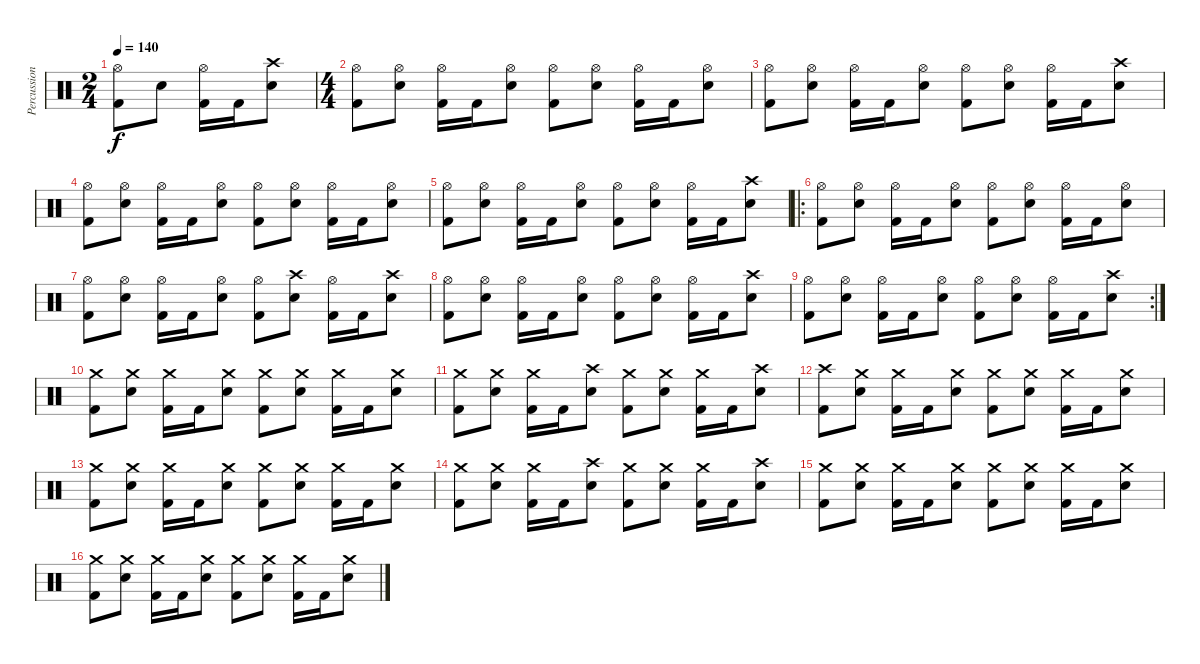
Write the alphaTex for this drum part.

\track ("Percussions" "Percussion") {instrument percussion}
\staff {score}
\articulation defaults
\ts (2 4)
\tempo 140
\clef neutral
\ks c
("Hi-Hat (open)" "Kick (hit) 2").8{dy f} "Snare (hit) 2".8 ("Hi-Hat (open)" "Kick (hit) 2").16 "Kick (hit) 2".16 ("Crash high (hit)" "Snare (hit) 2").8 |
\ts (4 4)
("Hi-Hat (open)" "Kick (hit) 2").8 ("Hi-Hat (open)" "Snare (hit) 2").8 ("Hi-Hat (open)" "Kick (hit) 2").16 "Kick (hit) 2".16 ("Hi-Hat (open)" "Snare (hit) 2").8 ("Hi-Hat (open)" "Kick (hit) 2").8 ("Hi-Hat (open)" "Snare (hit) 2").8 ("Hi-Hat (open)" "Kick (hit) 2").16 "Kick (hit) 2".16 ("Hi-Hat (open)" "Snare (hit) 2").8 |
("Hi-Hat (open)" "Kick (hit) 2").8 ("Hi-Hat (open)" "Snare (hit) 2").8 ("Hi-Hat (open)" "Kick (hit) 2").16 "Kick (hit) 2".16 ("Hi-Hat (open)" "Snare (hit) 2").8 ("Hi-Hat (open)" "Kick (hit) 2").8 ("Hi-Hat (open)" "Snare (hit) 2").8 ("Hi-Hat (open)" "Kick (hit) 2").16 "Kick (hit) 2".16 ("Crash high (hit)" "Snare (hit) 2").8 |
("Hi-Hat (open)" "Kick (hit) 2").8 ("Hi-Hat (open)" "Snare (hit) 2").8 ("Hi-Hat (open)" "Kick (hit) 2").16 "Kick (hit) 2".16 ("Hi-Hat (open)" "Snare (hit) 2").8 ("Hi-Hat (open)" "Kick (hit) 2").8 ("Hi-Hat (open)" "Snare (hit) 2").8 ("Hi-Hat (open)" "Kick (hit) 2").16 "Kick (hit) 2".16 ("Hi-Hat (open)" "Snare (hit) 2").8 |
("Hi-Hat (open)" "Kick (hit) 2").8 ("Hi-Hat (open)" "Snare (hit) 2").8 ("Hi-Hat (open)" "Kick (hit) 2").16 "Kick (hit) 2".16 ("Hi-Hat (open)" "Snare (hit) 2").8 ("Hi-Hat (open)" "Kick (hit) 2").8 ("Hi-Hat (open)" "Snare (hit) 2").8 ("Hi-Hat (open)" "Kick (hit) 2").16 "Kick (hit) 2".16 ("Crash high (hit)" "Snare (hit) 2").8 |
\ro
("Hi-Hat (open)" "Kick (hit) 2").8 ("Hi-Hat (open)" "Snare (hit) 2").8 ("Hi-Hat (open)" "Kick (hit) 2").16 "Kick (hit) 2".16 ("Hi-Hat (open)" "Snare (hit) 2").8 ("Hi-Hat (open)" "Kick (hit) 2").8 ("Hi-Hat (open)" "Snare (hit) 2").8 ("Hi-Hat (open)" "Kick (hit) 2").16 "Kick (hit) 2".16 ("Hi-Hat (open)" "Snare (hit) 2").8 |
("Hi-Hat (open)" "Kick (hit) 2").8 ("Hi-Hat (open)" "Snare (hit) 2").8 ("Hi-Hat (open)" "Kick (hit) 2").16 "Kick (hit) 2".16 ("Hi-Hat (open)" "Snare (hit) 2").8 ("Hi-Hat (open)" "Kick (hit) 2").8 ("Crash high (hit)" "Snare (hit) 2").8 ("Hi-Hat (open)" "Kick (hit) 2").16 "Kick (hit) 2".16 ("Crash high (hit)" "Snare (hit) 2").8 |
("Hi-Hat (open)" "Kick (hit) 2").8 ("Hi-Hat (open)" "Snare (hit) 2").8 ("Hi-Hat (open)" "Kick (hit) 2").16 "Kick (hit) 2".16 ("Hi-Hat (open)" "Snare (hit) 2").8 ("Hi-Hat (open)" "Kick (hit) 2").8 ("Hi-Hat (open)" "Snare (hit) 2").8 ("Hi-Hat (open)" "Kick (hit) 2").16 "Kick (hit) 2".16 ("Crash high (hit)" "Snare (hit) 2").8 |
\rc 2
("Hi-Hat (open)" "Kick (hit) 2").8 ("Hi-Hat (open)" "Snare (hit) 2").8 ("Hi-Hat (open)" "Kick (hit) 2").16 "Kick (hit) 2".16 ("Hi-Hat (open)" "Snare (hit) 2").8 ("Hi-Hat (open)" "Kick (hit) 2").8 ("Hi-Hat (open)" "Snare (hit) 2").8 ("Hi-Hat (open)" "Kick (hit) 2").16 "Kick (hit) 2".16 ("Crash high (hit)" "Snare (hit) 2").8 |
("Crash medium (hit)" "Kick (hit) 2").8 ("Crash medium (hit)" "Snare (hit) 2").8 ("Crash medium (hit)" "Kick (hit) 2").16 "Kick (hit) 2".16 ("Crash medium (hit)" "Snare (hit) 2").8 ("Crash medium (hit)" "Kick (hit) 2").8 ("Crash medium (hit)" "Snare (hit) 2").8 ("Crash medium (hit)" "Kick (hit) 2").16 "Kick (hit) 2".16 ("Crash medium (hit)" "Snare (hit) 2").8 |
("Crash medium (hit)" "Kick (hit) 2").8 ("Crash medium (hit)" "Snare (hit) 2").8 ("Crash medium (hit)" "Kick (hit) 2").16 "Kick (hit) 2".16 ("Crash high (hit)" "Snare (hit) 2").8 ("Crash medium (hit)" "Kick (hit) 2").8 ("Crash medium (hit)" "Snare (hit) 2").8 ("Crash medium (hit)" "Kick (hit) 2").16 "Kick (hit) 2".16 ("Crash high (hit)" "Snare (hit) 2").8 |
("Crash high (hit)" "Kick (hit) 2").8 ("Crash medium (hit)" "Snare (hit) 2").8 ("Crash medium (hit)" "Kick (hit) 2").16 "Kick (hit) 2".16 ("Crash medium (hit)" "Snare (hit) 2").8 ("Crash medium (hit)" "Kick (hit) 2").8 ("Crash medium (hit)" "Snare (hit) 2").8 ("Crash medium (hit)" "Kick (hit) 2").16 "Kick (hit) 2".16 ("Crash medium (hit)" "Snare (hit) 2").8 |
("Crash medium (hit)" "Kick (hit) 2").8 ("Crash medium (hit)" "Snare (hit) 2").8 ("Crash medium (hit)" "Kick (hit) 2").16 "Kick (hit) 2".16 ("Crash medium (hit)" "Snare (hit) 2").8 ("Crash medium (hit)" "Kick (hit) 2").8 ("Crash medium (hit)" "Snare (hit) 2").8 ("Crash medium (hit)" "Kick (hit) 2").16 "Kick (hit) 2".16 ("Crash medium (hit)" "Snare (hit) 2").8 |
("Crash medium (hit)" "Kick (hit) 2").8 ("Crash medium (hit)" "Snare (hit) 2").8 ("Crash medium (hit)" "Kick (hit) 2").16 "Kick (hit) 2".16 ("Crash high (hit)" "Snare (hit) 2").8 ("Crash medium (hit)" "Kick (hit) 2").8 ("Crash medium (hit)" "Snare (hit) 2").8 ("Crash medium (hit)" "Kick (hit) 2").16 "Kick (hit) 2".16 ("Crash high (hit)" "Snare (hit) 2").8 |
("Crash medium (hit)" "Kick (hit) 2").8 ("Crash medium (hit)" "Snare (hit) 2").8 ("Crash medium (hit)" "Kick (hit) 2").16 "Kick (hit) 2".16 ("Crash medium (hit)" "Snare (hit) 2").8 ("Crash medium (hit)" "Kick (hit) 2").8 ("Crash medium (hit)" "Snare (hit) 2").8 ("Crash medium (hit)" "Kick (hit) 2").16 "Kick (hit) 2".16 ("Crash medium (hit)" "Snare (hit) 2").8 |
("Crash medium (hit)" "Kick (hit) 2").8 ("Crash medium (hit)" "Snare (hit) 2").8 ("Crash medium (hit)" "Kick (hit) 2").16 "Kick (hit) 2".16 ("Crash medium (hit)" "Snare (hit) 2").8 ("Crash medium (hit)" "Kick (hit) 2").8 ("Crash medium (hit)" "Snare (hit) 2").8 ("Crash medium (hit)" "Kick (hit) 2").16 "Kick (hit) 2".16 ("Crash medium (hit)" "Snare (hit) 2").8
